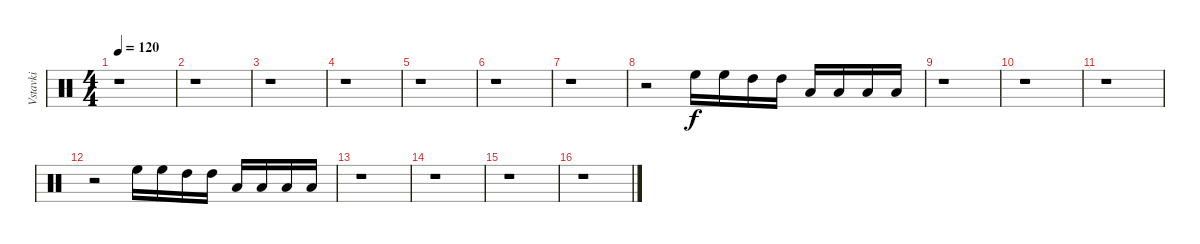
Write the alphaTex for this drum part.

\track ("Vstavki" "Vstavki") {instrument percussion}
\staff {score}
\articulation defaults
\ts (4 4)
\tempo 120
\clef neutral
\ks c
r.1{dy f} |
r.1 |
r.1 |
r.1 |
r.1 |
r.1 |
r.1 |
r.2 "High Floor Tom (hit)".16 "High Floor Tom (hit)".16 "High Tom (hit)".16 "High Tom (hit)".16 "Low Tom (hit)".16 "Low Tom (hit)".16 "Low Floor Tom (hit)".16 "Low Floor Tom (hit)".16 |
r.1 |
r.1 |
r.1 |
r.2 "High Floor Tom (hit)".16 "High Floor Tom (hit)".16 "High Tom (hit)".16 "High Tom (hit)".16 "Low Tom (hit)".16 "Low Tom (hit)".16 "Low Floor Tom (hit)".16 "Low Floor Tom (hit)".16 |
r.1 |
r.1 |
r.1 |
r.1
